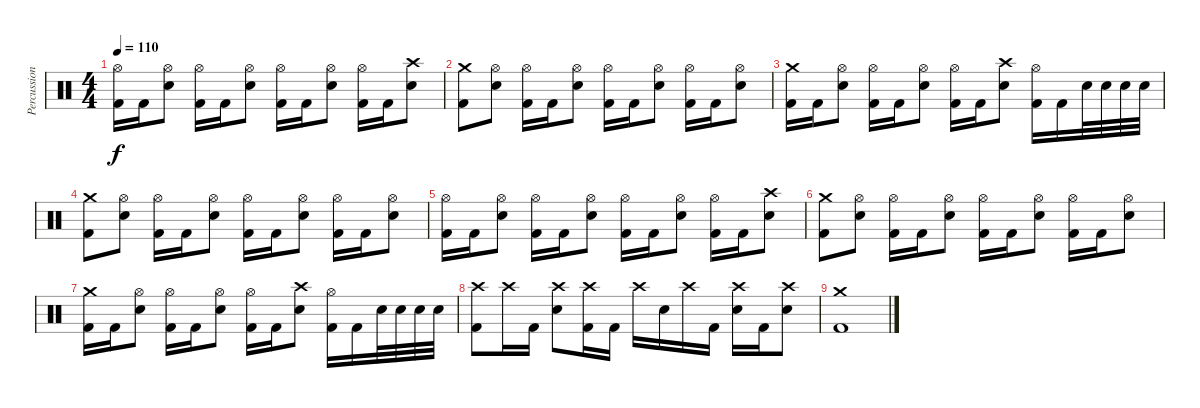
\track ("Percussion" "Percussion") {instrument percussion}
\staff {score}
\articulation defaults
\ts (4 4)
\tempo 110
\clef neutral
\ks c
("Hi-Hat (open)" "Kick (hit) 2").16{dy f} "Kick (hit) 2".16 ("Hi-Hat (open)" "Snare (hit) 2").8 ("Hi-Hat (open)" "Kick (hit) 2").16 "Kick (hit) 2".16 ("Hi-Hat (open)" "Snare (hit) 2").8 ("Hi-Hat (open)" "Kick (hit) 2").16 "Kick (hit) 2".16 ("Hi-Hat (open)" "Snare (hit) 2").8 ("Hi-Hat (open)" "Kick (hit) 2").16 "Kick (hit) 2".16 ("Crash high (hit)" "Snare (hit) 2").8 |
("Crash medium (hit)" "Kick (hit) 2").8 ("Hi-Hat (open)" "Snare (hit) 2").8 ("Hi-Hat (open)" "Kick (hit) 2").16 "Kick (hit) 2".16 ("Hi-Hat (open)" "Snare (hit) 2").8 ("Hi-Hat (open)" "Kick (hit) 2").16 "Kick (hit) 2".16 ("Hi-Hat (open)" "Snare (hit) 2").8 ("Hi-Hat (open)" "Kick (hit) 2").16 "Kick (hit) 2".16 ("Hi-Hat (open)" "Snare (hit) 2").8 |
("Crash medium (hit)" "Kick (hit) 2").16 "Kick (hit) 2".16 ("Hi-Hat (open)" "Snare (hit) 2").8 ("Hi-Hat (open)" "Kick (hit) 2").16 "Kick (hit) 2".16 ("Hi-Hat (open)" "Snare (hit) 2").8 ("Hi-Hat (open)" "Kick (hit) 2").16 "Kick (hit) 2".16 ("Crash high (hit)" "Snare (hit) 2").8 ("Hi-Hat (open)" "Kick (hit) 2").16 "Kick (hit) 2".16 "Snare (hit) 2".32 "Snare (hit) 2".32 "Snare (hit) 2".32 "Snare (hit) 2".32 |
("Crash medium (hit)" "Kick (hit) 2").8 ("Hi-Hat (open)" "Snare (hit) 2").8 ("Hi-Hat (open)" "Kick (hit) 2").16 "Kick (hit) 2".16 ("Hi-Hat (open)" "Snare (hit) 2").8 ("Hi-Hat (open)" "Kick (hit) 2").16 "Kick (hit) 2".16 ("Hi-Hat (open)" "Snare (hit) 2").8 ("Hi-Hat (open)" "Kick (hit) 2").16 "Kick (hit) 2".16 ("Hi-Hat (open)" "Snare (hit) 2").8 |
("Hi-Hat (open)" "Kick (hit) 2").16 "Kick (hit) 2".16 ("Hi-Hat (open)" "Snare (hit) 2").8 ("Hi-Hat (open)" "Kick (hit) 2").16 "Kick (hit) 2".16 ("Hi-Hat (open)" "Snare (hit) 2").8 ("Hi-Hat (open)" "Kick (hit) 2").16 "Kick (hit) 2".16 ("Hi-Hat (open)" "Snare (hit) 2").8 ("Hi-Hat (open)" "Kick (hit) 2").16 "Kick (hit) 2".16 ("Crash high (hit)" "Snare (hit) 2").8 |
("Crash medium (hit)" "Kick (hit) 2").8 ("Hi-Hat (open)" "Snare (hit) 2").8 ("Hi-Hat (open)" "Kick (hit) 2").16 "Kick (hit) 2".16 ("Hi-Hat (open)" "Snare (hit) 2").8 ("Hi-Hat (open)" "Kick (hit) 2").16 "Kick (hit) 2".16 ("Hi-Hat (open)" "Snare (hit) 2").8 ("Hi-Hat (open)" "Kick (hit) 2").16 "Kick (hit) 2".16 ("Hi-Hat (open)" "Snare (hit) 2").8 |
("Crash medium (hit)" "Kick (hit) 2").16 "Kick (hit) 2".16 ("Hi-Hat (open)" "Snare (hit) 2").8 ("Hi-Hat (open)" "Kick (hit) 2").16 "Kick (hit) 2".16 ("Hi-Hat (open)" "Snare (hit) 2").8 ("Hi-Hat (open)" "Kick (hit) 2").16 "Kick (hit) 2".16 ("Crash high (hit)" "Snare (hit) 2").8 ("Hi-Hat (open)" "Kick (hit) 2").16 "Kick (hit) 2".16 "Snare (hit) 2".32 "Snare (hit) 2".32 "Snare (hit) 2".32 "Snare (hit) 2".32 |
("Crash high (hit)" "Kick (hit) 2").8 "Crash high (hit)".16 "Kick (hit) 2".16 ("Crash high (hit)" "Snare (hit) 2").8 ("Crash high (hit)" "Kick (hit) 2").16 "Kick (hit) 2".16 "Crash high (hit)".16 "Snare (hit) 2".16 "Crash high (hit)".16 "Kick (hit) 2".16 ("Crash high (hit)" "Snare (hit) 2").16 "Kick (hit) 2".16 ("Crash high (hit)" "Snare (hit) 2").8 |
("Crash medium (hit)" "Kick (hit) 2").1
